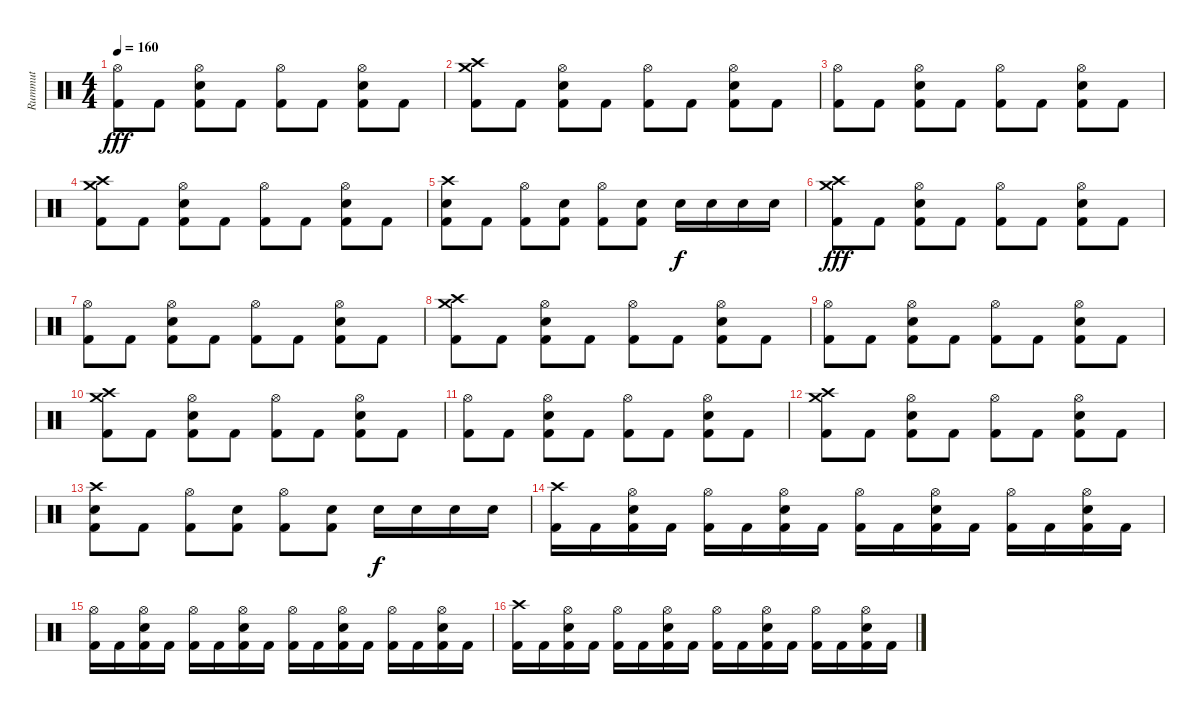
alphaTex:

\track ("Rummut" "Rummut") {instrument percussion}
\staff {score}
\articulation defaults
\ts (4 4)
\tempo 160
\clef neutral
\ks c
("Hi-Hat (open)" "Kick (hit) 2").8{dy fff} "Kick (hit) 2".8 ("Hi-Hat (open)" "Electric Snare (hit)" "Kick (hit) 2").8 "Kick (hit) 2".8 ("Hi-Hat (open)" "Kick (hit) 2").8 "Kick (hit) 2".8 ("Hi-Hat (open)" "Electric Snare (hit)" "Kick (hit) 2").8 "Kick (hit) 2".8 |
("Crash high (hit)" "Crash medium (hit)" "Kick (hit) 2").8 "Kick (hit) 2".8 ("Hi-Hat (open)" "Electric Snare (hit)" "Kick (hit) 2").8 "Kick (hit) 2".8 ("Hi-Hat (open)" "Kick (hit) 2").8 "Kick (hit) 2".8 ("Hi-Hat (open)" "Electric Snare (hit)" "Kick (hit) 2").8 "Kick (hit) 2".8 |
("Hi-Hat (open)" "Kick (hit) 2").8 "Kick (hit) 2".8 ("Hi-Hat (open)" "Electric Snare (hit)" "Kick (hit) 2").8 "Kick (hit) 2".8 ("Hi-Hat (open)" "Kick (hit) 2").8 "Kick (hit) 2".8 ("Hi-Hat (open)" "Electric Snare (hit)" "Kick (hit) 2").8 "Kick (hit) 2".8 |
("Crash high (hit)" "Crash medium (hit)" "Kick (hit) 2").8 "Kick (hit) 2".8 ("Hi-Hat (open)" "Electric Snare (hit)" "Kick (hit) 2").8 "Kick (hit) 2".8 ("Hi-Hat (open)" "Kick (hit) 2").8 "Kick (hit) 2".8 ("Hi-Hat (open)" "Electric Snare (hit)" "Kick (hit) 2").8 "Kick (hit) 2".8 |
("Crash high (hit)" "Electric Snare (hit)" "Kick (hit) 2").8 "Kick (hit) 2".8 ("Hi-Hat (open)" "Kick (hit) 2").8 ("Electric Snare (hit)" "Kick (hit) 2").8 ("Hi-Hat (open)" "Kick (hit) 2").8 ("Electric Snare (hit)" "Kick (hit) 2").8 "Electric Snare (hit)".16{dy f} "Electric Snare (hit)".16 "Electric Snare (hit)".16 "Electric Snare (hit)".16 |
("Crash high (hit)" "Crash medium (hit)" "Kick (hit) 2").8{dy fff} "Kick (hit) 2".8 ("Hi-Hat (open)" "Electric Snare (hit)" "Kick (hit) 2").8 "Kick (hit) 2".8 ("Hi-Hat (open)" "Kick (hit) 2").8 "Kick (hit) 2".8 ("Hi-Hat (open)" "Electric Snare (hit)" "Kick (hit) 2").8 "Kick (hit) 2".8 |
("Hi-Hat (open)" "Kick (hit) 2").8 "Kick (hit) 2".8 ("Hi-Hat (open)" "Electric Snare (hit)" "Kick (hit) 2").8 "Kick (hit) 2".8 ("Hi-Hat (open)" "Kick (hit) 2").8 "Kick (hit) 2".8 ("Hi-Hat (open)" "Electric Snare (hit)" "Kick (hit) 2").8 "Kick (hit) 2".8 |
("Crash high (hit)" "Crash medium (hit)" "Kick (hit) 2").8 "Kick (hit) 2".8 ("Hi-Hat (open)" "Electric Snare (hit)" "Kick (hit) 2").8 "Kick (hit) 2".8 ("Hi-Hat (open)" "Kick (hit) 2").8 "Kick (hit) 2".8 ("Hi-Hat (open)" "Electric Snare (hit)" "Kick (hit) 2").8 "Kick (hit) 2".8 |
("Hi-Hat (open)" "Kick (hit) 2").8 "Kick (hit) 2".8 ("Hi-Hat (open)" "Electric Snare (hit)" "Kick (hit) 2").8 "Kick (hit) 2".8 ("Hi-Hat (open)" "Kick (hit) 2").8 "Kick (hit) 2".8 ("Hi-Hat (open)" "Electric Snare (hit)" "Kick (hit) 2").8 "Kick (hit) 2".8 |
("Crash high (hit)" "Crash medium (hit)" "Kick (hit) 2").8 "Kick (hit) 2".8 ("Hi-Hat (open)" "Electric Snare (hit)" "Kick (hit) 2").8 "Kick (hit) 2".8 ("Hi-Hat (open)" "Kick (hit) 2").8 "Kick (hit) 2".8 ("Hi-Hat (open)" "Electric Snare (hit)" "Kick (hit) 2").8 "Kick (hit) 2".8 |
("Hi-Hat (open)" "Kick (hit) 2").8 "Kick (hit) 2".8 ("Hi-Hat (open)" "Electric Snare (hit)" "Kick (hit) 2").8 "Kick (hit) 2".8 ("Hi-Hat (open)" "Kick (hit) 2").8 "Kick (hit) 2".8 ("Hi-Hat (open)" "Electric Snare (hit)" "Kick (hit) 2").8 "Kick (hit) 2".8 |
("Crash high (hit)" "Crash medium (hit)" "Kick (hit) 2").8 "Kick (hit) 2".8 ("Hi-Hat (open)" "Electric Snare (hit)" "Kick (hit) 2").8 "Kick (hit) 2".8 ("Hi-Hat (open)" "Kick (hit) 2").8 "Kick (hit) 2".8 ("Hi-Hat (open)" "Electric Snare (hit)" "Kick (hit) 2").8 "Kick (hit) 2".8 |
("Crash high (hit)" "Electric Snare (hit)" "Kick (hit) 2").8 "Kick (hit) 2".8 ("Hi-Hat (open)" "Kick (hit) 2").8 ("Electric Snare (hit)" "Kick (hit) 2").8 ("Hi-Hat (open)" "Kick (hit) 2").8 ("Electric Snare (hit)" "Kick (hit) 2").8 "Electric Snare (hit)".16{dy f} "Electric Snare (hit)".16 "Electric Snare (hit)".16 "Electric Snare (hit)".16 |
("Crash high (hit)" "Kick (hit) 2").16 "Kick (hit) 2".16 ("Hi-Hat (open)" "Snare (hit) 2" "Kick (hit) 2").16 "Kick (hit) 2".16 ("Hi-Hat (open)" "Kick (hit) 2").16 "Kick (hit) 2".16 ("Hi-Hat (open)" "Snare (hit) 2" "Kick (hit) 2").16 "Kick (hit) 2".16 ("Hi-Hat (open)" "Kick (hit) 2").16 "Kick (hit) 2".16 ("Hi-Hat (open)" "Snare (hit) 2" "Kick (hit) 2").16 "Kick (hit) 2".16 ("Hi-Hat (open)" "Kick (hit) 2").16 "Kick (hit) 2".16 ("Hi-Hat (open)" "Snare (hit) 2" "Kick (hit) 2").16 "Kick (hit) 2".16 |
("Hi-Hat (open)" "Kick (hit) 2").16 "Kick (hit) 2".16 ("Hi-Hat (open)" "Snare (hit) 2" "Kick (hit) 2").16 "Kick (hit) 2".16 ("Hi-Hat (open)" "Kick (hit) 2").16 "Kick (hit) 2".16 ("Hi-Hat (open)" "Snare (hit) 2" "Kick (hit) 2").16 "Kick (hit) 2".16 ("Hi-Hat (open)" "Kick (hit) 2").16 "Kick (hit) 2".16 ("Hi-Hat (open)" "Snare (hit) 2" "Kick (hit) 2").16 "Kick (hit) 2".16 ("Hi-Hat (open)" "Kick (hit) 2").16 "Kick (hit) 2".16 ("Hi-Hat (open)" "Snare (hit) 2" "Kick (hit) 2").16 "Kick (hit) 2".16 |
("Crash high (hit)" "Kick (hit) 2").16 "Kick (hit) 2".16 ("Hi-Hat (open)" "Snare (hit) 2" "Kick (hit) 2").16 "Kick (hit) 2".16 ("Hi-Hat (open)" "Kick (hit) 2").16 "Kick (hit) 2".16 ("Hi-Hat (open)" "Snare (hit) 2" "Kick (hit) 2").16 "Kick (hit) 2".16 ("Hi-Hat (open)" "Kick (hit) 2").16 "Kick (hit) 2".16 ("Hi-Hat (open)" "Snare (hit) 2" "Kick (hit) 2").16 "Kick (hit) 2".16 ("Hi-Hat (open)" "Kick (hit) 2").16 "Kick (hit) 2".16 ("Hi-Hat (open)" "Snare (hit) 2" "Kick (hit) 2").16 "Kick (hit) 2".16
